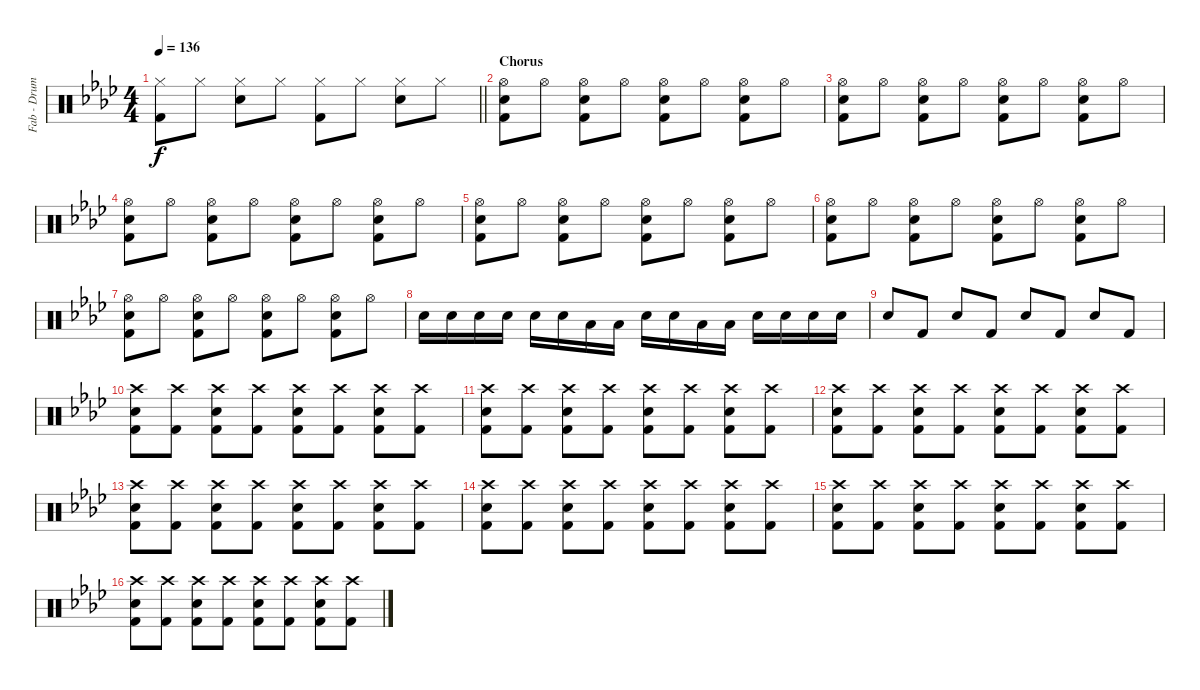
\track ("Fab - Drums MIDI" "Fab - Drum") {instrument percussion}
\staff {score}
\articulation defaults
\ts (4 4)
\tempo 136
\clef neutral
\barLineRight lightlight
\ks ab
("Hi-Hat (closed)" "Kick (hit) 2").8{dy f} "Hi-Hat (closed)".8 ("Hi-Hat (closed)" "Snare (hit) 2").8 "Hi-Hat (closed)".8 ("Hi-Hat (closed)" "Kick (hit) 2").8 "Hi-Hat (closed)".8 ("Hi-Hat (closed)" "Snare (hit) 2").8 "Hi-Hat (closed)".8 |
\section ("" "Chorus")
("Hi-Hat (open)" "Snare (hit) 2" "Kick (hit) 2").8 "Hi-Hat (open)".8 ("Hi-Hat (open)" "Snare (hit) 2" "Kick (hit) 2").8 "Hi-Hat (open)".8 ("Hi-Hat (open)" "Snare (hit) 2" "Kick (hit) 2").8 "Hi-Hat (open)".8 ("Hi-Hat (open)" "Snare (hit) 2" "Kick (hit) 2").8 "Hi-Hat (open)".8 |
("Hi-Hat (open)" "Snare (hit) 2" "Kick (hit) 2").8 "Hi-Hat (open)".8 ("Hi-Hat (open)" "Snare (hit) 2" "Kick (hit) 2").8 "Hi-Hat (open)".8 ("Hi-Hat (open)" "Snare (hit) 2" "Kick (hit) 2").8 "Hi-Hat (open)".8 ("Hi-Hat (open)" "Snare (hit) 2" "Kick (hit) 2").8 "Hi-Hat (open)".8 |
("Hi-Hat (open)" "Snare (hit) 2" "Kick (hit) 2").8 "Hi-Hat (open)".8 ("Hi-Hat (open)" "Snare (hit) 2" "Kick (hit) 2").8 "Hi-Hat (open)".8 ("Hi-Hat (open)" "Snare (hit) 2" "Kick (hit) 2").8 "Hi-Hat (open)".8 ("Hi-Hat (open)" "Snare (hit) 2" "Kick (hit) 2").8 "Hi-Hat (open)".8 |
("Hi-Hat (open)" "Snare (hit) 2" "Kick (hit) 2").8 "Hi-Hat (open)".8 ("Hi-Hat (open)" "Snare (hit) 2" "Kick (hit) 2").8 "Hi-Hat (open)".8 ("Hi-Hat (open)" "Snare (hit) 2" "Kick (hit) 2").8 "Hi-Hat (open)".8 ("Hi-Hat (open)" "Snare (hit) 2" "Kick (hit) 2").8 "Hi-Hat (open)".8 |
("Hi-Hat (open)" "Snare (hit) 2" "Kick (hit) 2").8 "Hi-Hat (open)".8 ("Hi-Hat (open)" "Snare (hit) 2" "Kick (hit) 2").8 "Hi-Hat (open)".8 ("Hi-Hat (open)" "Snare (hit) 2" "Kick (hit) 2").8 "Hi-Hat (open)".8 ("Hi-Hat (open)" "Snare (hit) 2" "Kick (hit) 2").8 "Hi-Hat (open)".8 |
("Hi-Hat (open)" "Snare (hit) 2" "Kick (hit) 2").8 "Hi-Hat (open)".8 ("Hi-Hat (open)" "Snare (hit) 2" "Kick (hit) 2").8 "Hi-Hat (open)".8 ("Hi-Hat (open)" "Snare (hit) 2" "Kick (hit) 2").8 "Hi-Hat (open)".8 ("Hi-Hat (open)" "Snare (hit) 2" "Kick (hit) 2").8 "Hi-Hat (open)".8 |
"Snare (hit) 2".16 "Snare (hit) 2".16 "Snare (hit) 2".16 "Snare (hit) 2".16 "Snare (hit) 2".16 "Snare (hit) 2".16 "Low Tom (hit)".16 "Low Tom (hit)".16 "Snare (hit) 2".16 "Snare (hit) 2".16 "Low Tom (hit)".16 "Low Tom (hit)".16 "Snare (hit) 2".16 "Snare (hit) 2".16 "Snare (hit) 2".16 "Snare (hit) 2".16 |
"Snare (hit) 2".8 "Kick (hit) 2".8 "Snare (hit) 2".8 "Kick (hit) 2".8 "Snare (hit) 2".8 "Kick (hit) 2".8 "Snare (hit) 2".8 "Kick (hit) 2".8 |
("Crash high (hit)" "Snare (hit) 2" "Kick (hit) 2").8 ("Crash high (hit)" "Kick (hit) 2").8 ("Crash high (hit)" "Snare (hit) 2" "Kick (hit) 2").8 ("Crash high (hit)" "Kick (hit) 2").8 ("Crash high (hit)" "Snare (hit) 2" "Kick (hit) 2").8 ("Crash high (hit)" "Kick (hit) 2").8 ("Crash high (hit)" "Snare (hit) 2" "Kick (hit) 2").8 ("Crash high (hit)" "Kick (hit) 2").8 |
("Crash high (hit)" "Snare (hit) 2" "Kick (hit) 2").8 ("Crash high (hit)" "Kick (hit) 2").8 ("Crash high (hit)" "Snare (hit) 2" "Kick (hit) 2").8 ("Crash high (hit)" "Kick (hit) 2").8 ("Crash high (hit)" "Snare (hit) 2" "Kick (hit) 2").8 ("Crash high (hit)" "Kick (hit) 2").8 ("Crash high (hit)" "Snare (hit) 2" "Kick (hit) 2").8 ("Crash high (hit)" "Kick (hit) 2").8 |
("Crash high (hit)" "Snare (hit) 2" "Kick (hit) 2").8 ("Crash high (hit)" "Kick (hit) 2").8 ("Crash high (hit)" "Snare (hit) 2" "Kick (hit) 2").8 ("Crash high (hit)" "Kick (hit) 2").8 ("Crash high (hit)" "Snare (hit) 2" "Kick (hit) 2").8 ("Crash high (hit)" "Kick (hit) 2").8 ("Crash high (hit)" "Snare (hit) 2" "Kick (hit) 2").8 ("Crash high (hit)" "Kick (hit) 2").8 |
("Crash high (hit)" "Snare (hit) 2" "Kick (hit) 2").8 ("Crash high (hit)" "Kick (hit) 2").8 ("Crash high (hit)" "Snare (hit) 2" "Kick (hit) 2").8 ("Crash high (hit)" "Kick (hit) 2").8 ("Crash high (hit)" "Snare (hit) 2" "Kick (hit) 2").8 ("Crash high (hit)" "Kick (hit) 2").8 ("Crash high (hit)" "Snare (hit) 2" "Kick (hit) 2").8 ("Crash high (hit)" "Kick (hit) 2").8 |
("Crash high (hit)" "Snare (hit) 2" "Kick (hit) 2").8 ("Crash high (hit)" "Kick (hit) 2").8 ("Crash high (hit)" "Snare (hit) 2" "Kick (hit) 2").8 ("Crash high (hit)" "Kick (hit) 2").8 ("Crash high (hit)" "Snare (hit) 2" "Kick (hit) 2").8 ("Crash high (hit)" "Kick (hit) 2").8 ("Crash high (hit)" "Snare (hit) 2" "Kick (hit) 2").8 ("Crash high (hit)" "Kick (hit) 2").8 |
("Crash high (hit)" "Snare (hit) 2" "Kick (hit) 2").8 ("Crash high (hit)" "Kick (hit) 2").8 ("Crash high (hit)" "Snare (hit) 2" "Kick (hit) 2").8 ("Crash high (hit)" "Kick (hit) 2").8 ("Crash high (hit)" "Snare (hit) 2" "Kick (hit) 2").8 ("Crash high (hit)" "Kick (hit) 2").8 ("Crash high (hit)" "Snare (hit) 2" "Kick (hit) 2").8 ("Crash high (hit)" "Kick (hit) 2").8 |
("Crash high (hit)" "Snare (hit) 2" "Kick (hit) 2").8 ("Crash high (hit)" "Kick (hit) 2").8 ("Crash high (hit)" "Snare (hit) 2" "Kick (hit) 2").8 ("Crash high (hit)" "Kick (hit) 2").8 ("Crash high (hit)" "Snare (hit) 2" "Kick (hit) 2").8 ("Crash high (hit)" "Kick (hit) 2").8 ("Crash high (hit)" "Snare (hit) 2" "Kick (hit) 2").8 ("Crash high (hit)" "Kick (hit) 2").8
